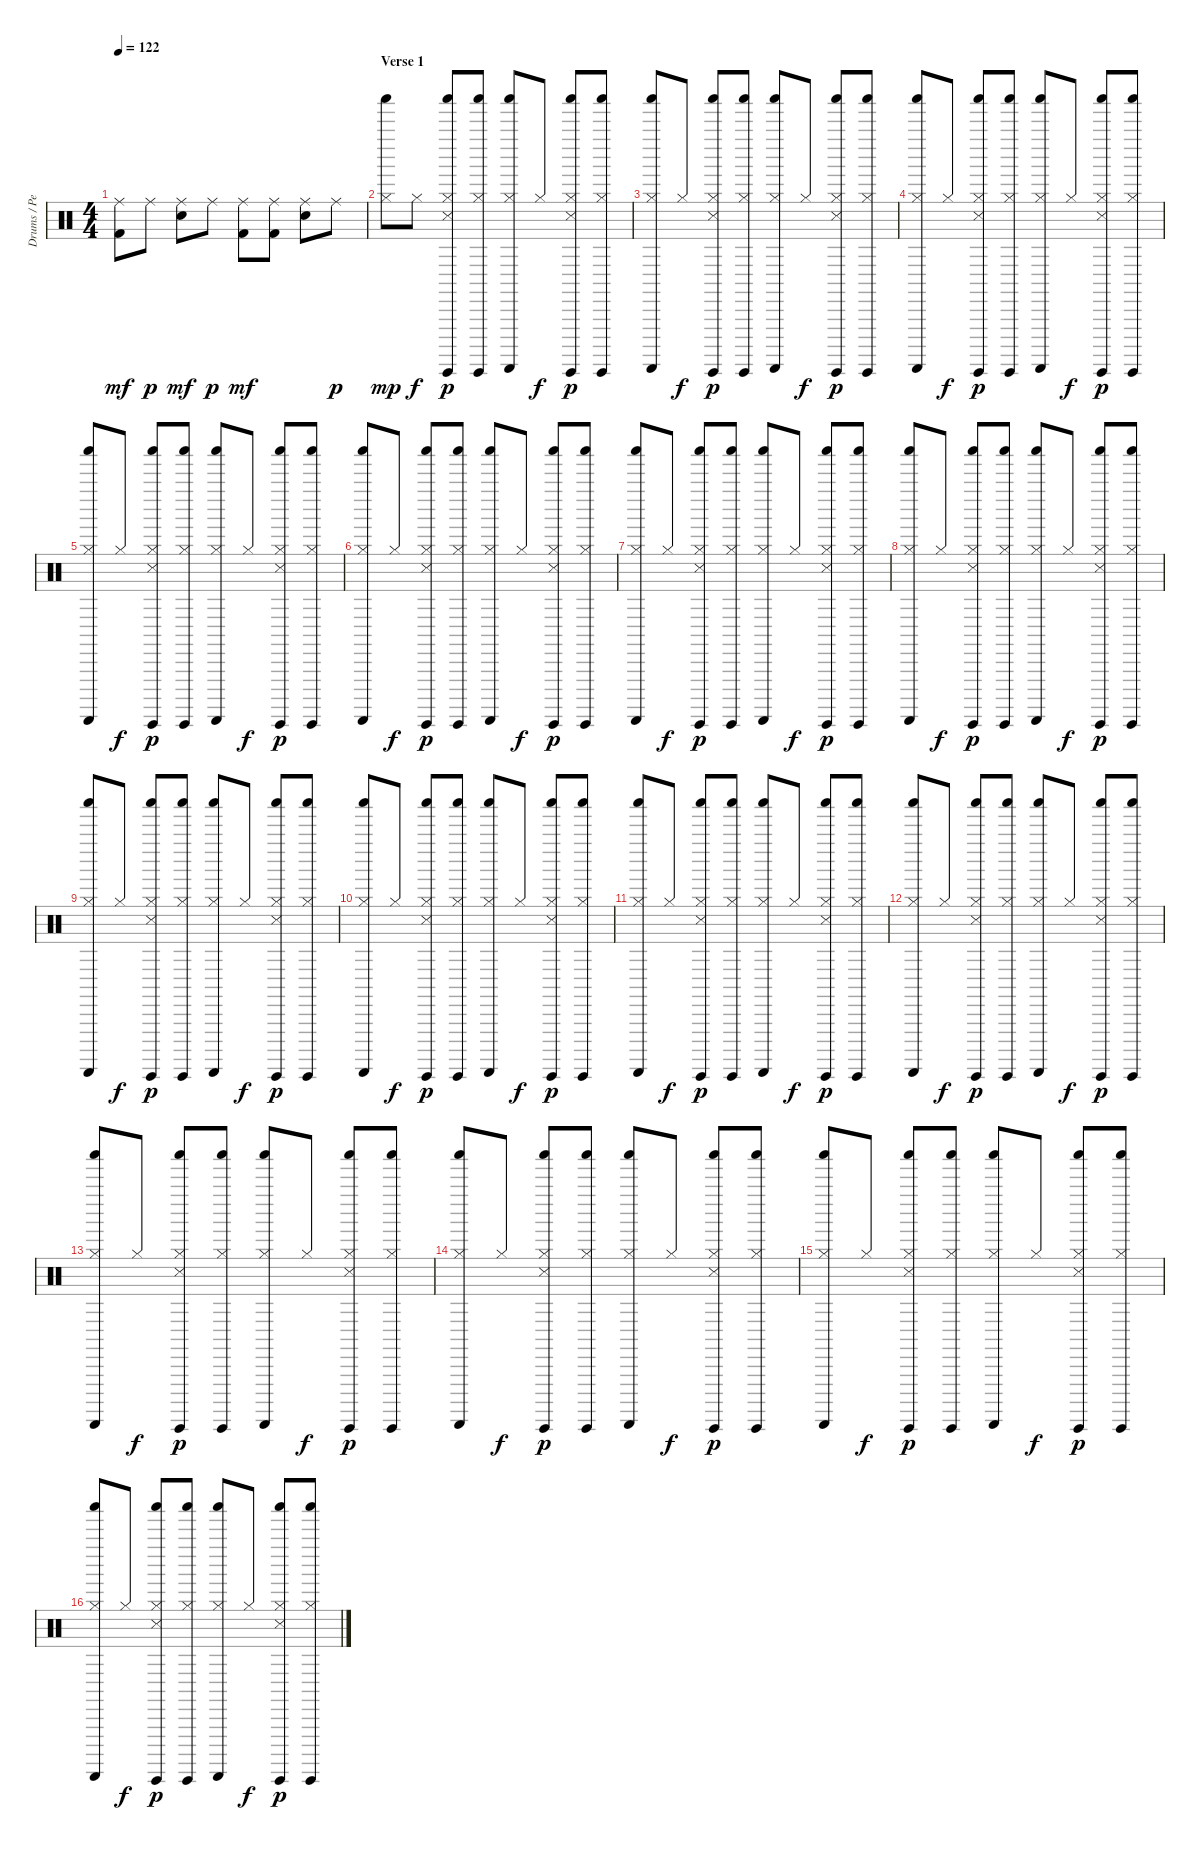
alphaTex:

\track ("Drums / Percussion" "Drums / Pe") {instrument percussion}
\staff {score}
\articulation defaults
\ts (4 4)
\tempo 122
\clef neutral
\ks c
("Ride (middle)" "Kick (hit) 2").8{dy mf} "Ride (middle)".8{dy p} ("Ride (middle)" "Snare (hit) 2").8{dy mf} "Ride (middle)".8{dy p} ("Ride (middle)" "Kick (hit) 2").8{dy mf} ("Ride (middle)" "Kick (hit) 2").8 ("Ride (middle)" "Snare (hit) 2").8 "Ride (middle)".8{dy p} |
\section ("" "Verse 1")
("Hi-Hat (closed)" "Shaker (hit)").8{dy mp} "Hi-Hat (closed)".8{dy f} ("Hi-Hat (closed)" "Shaker (hit)" "Guiro (hit)" "Snare (side stick) 3").8{dy p} ("Hi-Hat (closed)" "Shaker (hit)" "Guiro (hit)").8 ("Hi-Hat (closed)" "Shaker (hit)" "Guiro (scrap-return)").8 "Hi-Hat (closed)".8{dy f} ("Hi-Hat (closed)" "Shaker (hit)" "Guiro (hit)" "Snare (side stick) 3").8{dy p} ("Hi-Hat (closed)" "Shaker (hit)" "Guiro (hit)").8 |
("Hi-Hat (closed)" "Shaker (hit)" "Guiro (scrap-return)").8 "Hi-Hat (closed)".8{dy f} ("Hi-Hat (closed)" "Shaker (hit)" "Guiro (hit)" "Snare (side stick) 3").8{dy p} ("Hi-Hat (closed)" "Shaker (hit)" "Guiro (hit)").8 ("Hi-Hat (closed)" "Shaker (hit)" "Guiro (scrap-return)").8 "Hi-Hat (closed)".8{dy f} ("Hi-Hat (closed)" "Shaker (hit)" "Guiro (hit)" "Snare (side stick) 3").8{dy p} ("Hi-Hat (closed)" "Shaker (hit)" "Guiro (hit)").8 |
("Hi-Hat (closed)" "Shaker (hit)" "Guiro (scrap-return)").8 "Hi-Hat (closed)".8{dy f} ("Hi-Hat (closed)" "Shaker (hit)" "Guiro (hit)" "Snare (side stick) 3").8{dy p} ("Hi-Hat (closed)" "Shaker (hit)" "Guiro (hit)").8 ("Hi-Hat (closed)" "Shaker (hit)" "Guiro (scrap-return)").8 "Hi-Hat (closed)".8{dy f} ("Hi-Hat (closed)" "Shaker (hit)" "Guiro (hit)" "Snare (side stick) 3").8{dy p} ("Hi-Hat (closed)" "Shaker (hit)" "Guiro (hit)").8 |
("Hi-Hat (closed)" "Shaker (hit)" "Guiro (scrap-return)").8 "Hi-Hat (closed)".8{dy f} ("Hi-Hat (closed)" "Shaker (hit)" "Guiro (hit)" "Snare (side stick) 3").8{dy p} ("Hi-Hat (closed)" "Shaker (hit)" "Guiro (hit)").8 ("Hi-Hat (closed)" "Shaker (hit)" "Guiro (scrap-return)").8 "Hi-Hat (closed)".8{dy f} ("Hi-Hat (closed)" "Shaker (hit)" "Guiro (hit)" "Snare (side stick) 3").8{dy p} ("Hi-Hat (closed)" "Shaker (hit)" "Guiro (hit)").8 |
("Hi-Hat (closed)" "Shaker (hit)" "Guiro (scrap-return)").8 "Hi-Hat (closed)".8{dy f} ("Hi-Hat (closed)" "Shaker (hit)" "Guiro (hit)" "Snare (side stick) 3").8{dy p} ("Hi-Hat (closed)" "Shaker (hit)" "Guiro (hit)").8 ("Hi-Hat (closed)" "Shaker (hit)" "Guiro (scrap-return)").8 "Hi-Hat (closed)".8{dy f} ("Hi-Hat (closed)" "Shaker (hit)" "Guiro (hit)" "Snare (side stick) 3").8{dy p} ("Hi-Hat (closed)" "Shaker (hit)" "Guiro (hit)").8 |
("Hi-Hat (closed)" "Shaker (hit)" "Guiro (scrap-return)").8 "Hi-Hat (closed)".8{dy f} ("Hi-Hat (closed)" "Shaker (hit)" "Guiro (hit)" "Snare (side stick) 3").8{dy p} ("Hi-Hat (closed)" "Shaker (hit)" "Guiro (hit)").8 ("Hi-Hat (closed)" "Shaker (hit)" "Guiro (scrap-return)").8 "Hi-Hat (closed)".8{dy f} ("Hi-Hat (closed)" "Shaker (hit)" "Guiro (hit)" "Snare (side stick) 3").8{dy p} ("Hi-Hat (closed)" "Shaker (hit)" "Guiro (hit)").8 |
("Hi-Hat (closed)" "Shaker (hit)" "Guiro (scrap-return)").8 "Hi-Hat (closed)".8{dy f} ("Hi-Hat (closed)" "Shaker (hit)" "Guiro (hit)" "Snare (side stick) 3").8{dy p} ("Hi-Hat (closed)" "Shaker (hit)" "Guiro (hit)").8 ("Hi-Hat (closed)" "Shaker (hit)" "Guiro (scrap-return)").8 "Hi-Hat (closed)".8{dy f} ("Hi-Hat (closed)" "Shaker (hit)" "Guiro (hit)" "Snare (side stick) 3").8{dy p} ("Hi-Hat (closed)" "Shaker (hit)" "Guiro (hit)").8 |
("Hi-Hat (closed)" "Shaker (hit)" "Guiro (scrap-return)").8 "Hi-Hat (closed)".8{dy f} ("Hi-Hat (closed)" "Shaker (hit)" "Guiro (hit)" "Snare (side stick) 3").8{dy p} ("Hi-Hat (closed)" "Shaker (hit)" "Guiro (hit)").8 ("Hi-Hat (closed)" "Shaker (hit)" "Guiro (scrap-return)").8 "Hi-Hat (closed)".8{dy f} ("Hi-Hat (closed)" "Shaker (hit)" "Guiro (hit)" "Snare (side stick) 3").8{dy p} ("Hi-Hat (closed)" "Shaker (hit)" "Guiro (hit)").8 |
("Hi-Hat (closed)" "Shaker (hit)" "Guiro (scrap-return)").8 "Hi-Hat (closed)".8{dy f} ("Hi-Hat (closed)" "Shaker (hit)" "Guiro (hit)" "Snare (side stick) 3").8{dy p} ("Hi-Hat (closed)" "Shaker (hit)" "Guiro (hit)").8 ("Hi-Hat (closed)" "Shaker (hit)" "Guiro (scrap-return)").8 "Hi-Hat (closed)".8{dy f} ("Hi-Hat (closed)" "Shaker (hit)" "Guiro (hit)" "Snare (side stick) 3").8{dy p} ("Hi-Hat (closed)" "Shaker (hit)" "Guiro (hit)").8 |
("Hi-Hat (closed)" "Shaker (hit)" "Guiro (scrap-return)").8 "Hi-Hat (closed)".8{dy f} ("Hi-Hat (closed)" "Shaker (hit)" "Guiro (hit)" "Snare (side stick) 3").8{dy p} ("Hi-Hat (closed)" "Shaker (hit)" "Guiro (hit)").8 ("Hi-Hat (closed)" "Shaker (hit)" "Guiro (scrap-return)").8 "Hi-Hat (closed)".8{dy f} ("Hi-Hat (closed)" "Shaker (hit)" "Guiro (hit)" "Snare (side stick) 3").8{dy p} ("Hi-Hat (closed)" "Shaker (hit)" "Guiro (hit)").8 |
("Hi-Hat (closed)" "Shaker (hit)" "Guiro (scrap-return)").8 "Hi-Hat (closed)".8{dy f} ("Hi-Hat (closed)" "Shaker (hit)" "Guiro (hit)" "Snare (side stick) 3").8{dy p} ("Hi-Hat (closed)" "Shaker (hit)" "Guiro (hit)").8 ("Hi-Hat (closed)" "Shaker (hit)" "Guiro (scrap-return)").8 "Hi-Hat (closed)".8{dy f} ("Hi-Hat (closed)" "Shaker (hit)" "Guiro (hit)" "Snare (side stick) 3").8{dy p} ("Hi-Hat (closed)" "Shaker (hit)" "Guiro (hit)").8 |
("Hi-Hat (closed)" "Shaker (hit)" "Guiro (scrap-return)").8 "Hi-Hat (closed)".8{dy f} ("Hi-Hat (closed)" "Shaker (hit)" "Guiro (hit)" "Snare (side stick) 3").8{dy p} ("Hi-Hat (closed)" "Shaker (hit)" "Guiro (hit)").8 ("Hi-Hat (closed)" "Shaker (hit)" "Guiro (scrap-return)").8 "Hi-Hat (closed)".8{dy f} ("Hi-Hat (closed)" "Shaker (hit)" "Guiro (hit)" "Snare (side stick) 3").8{dy p} ("Hi-Hat (closed)" "Shaker (hit)" "Guiro (hit)").8 |
("Hi-Hat (closed)" "Shaker (hit)" "Guiro (scrap-return)").8 "Hi-Hat (closed)".8{dy f} ("Hi-Hat (closed)" "Shaker (hit)" "Guiro (hit)" "Snare (side stick) 3").8{dy p} ("Hi-Hat (closed)" "Shaker (hit)" "Guiro (hit)").8 ("Hi-Hat (closed)" "Shaker (hit)" "Guiro (scrap-return)").8 "Hi-Hat (closed)".8{dy f} ("Hi-Hat (closed)" "Shaker (hit)" "Guiro (hit)" "Snare (side stick) 3").8{dy p} ("Hi-Hat (closed)" "Shaker (hit)" "Guiro (hit)").8 |
("Hi-Hat (closed)" "Shaker (hit)" "Guiro (scrap-return)").8 "Hi-Hat (closed)".8{dy f} ("Hi-Hat (closed)" "Shaker (hit)" "Guiro (hit)" "Snare (side stick) 3").8{dy p} ("Hi-Hat (closed)" "Shaker (hit)" "Guiro (hit)").8 ("Hi-Hat (closed)" "Shaker (hit)" "Guiro (scrap-return)").8 "Hi-Hat (closed)".8{dy f} ("Hi-Hat (closed)" "Shaker (hit)" "Guiro (hit)" "Snare (side stick) 3").8{dy p} ("Hi-Hat (closed)" "Shaker (hit)" "Guiro (hit)").8 |
("Hi-Hat (closed)" "Shaker (hit)" "Guiro (scrap-return)").8 "Hi-Hat (closed)".8{dy f} ("Hi-Hat (closed)" "Shaker (hit)" "Guiro (hit)" "Snare (side stick) 3").8{dy p} ("Hi-Hat (closed)" "Shaker (hit)" "Guiro (hit)").8 ("Hi-Hat (closed)" "Shaker (hit)" "Guiro (scrap-return)").8 "Hi-Hat (closed)".8{dy f} ("Hi-Hat (closed)" "Shaker (hit)" "Guiro (hit)" "Snare (side stick) 3").8{dy p} ("Hi-Hat (closed)" "Shaker (hit)" "Guiro (hit)").8
